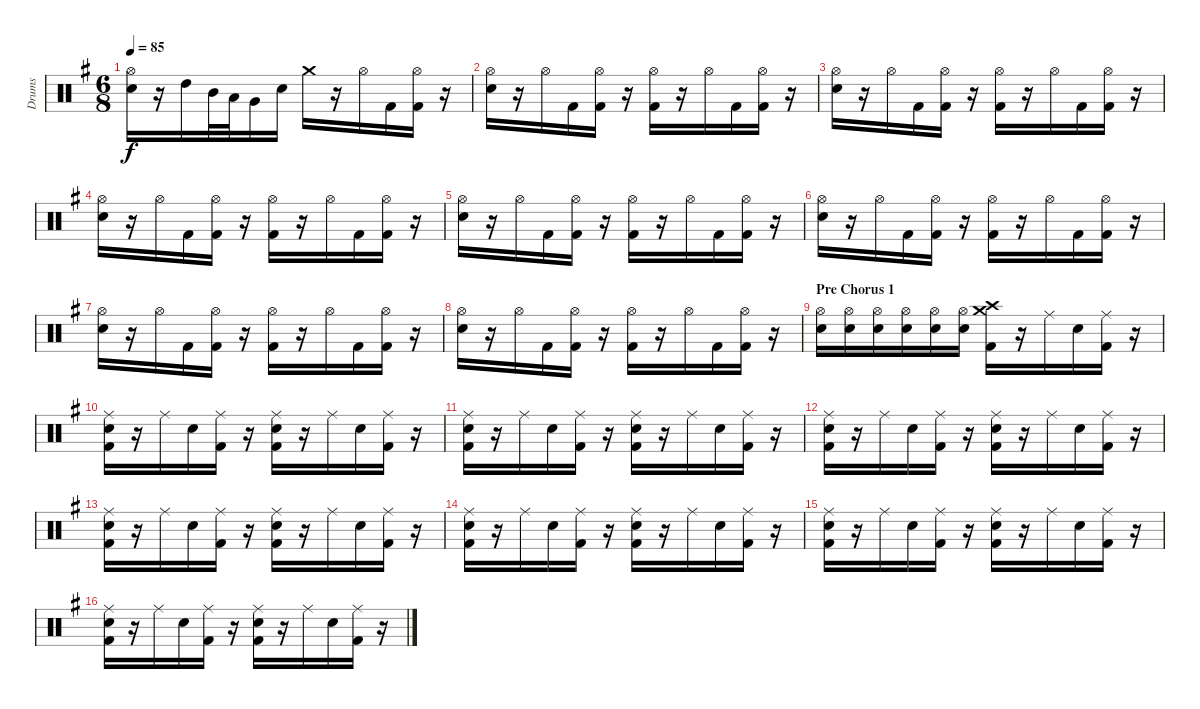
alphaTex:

\track ("Drums" "Drums") {instrument percussion}
\staff {score}
\articulation defaults
\ts (6 8)
\tempo 85
\clef neutral
\ks eminor
("Hi-Hat (open)" "Electric Snare (hit)").16{dy f} r.16 "High Tom (hit)".16 "Mid Tom (hit)".32 "Low Tom (hit)".32 "Very Low Tom (hit)".16 "Electric Snare (hit)".16 "Crash medium (hit)".16 r.16 "Hi-Hat (open)".16 "Kick (hit) 2".16 ("Hi-Hat (open)" "Kick (hit) 2").16 r.16 |
("Hi-Hat (open)" "Electric Snare (hit)").16 r.16 "Hi-Hat (open)".16 "Kick (hit) 2".16 ("Hi-Hat (open)" "Kick (hit) 2").16 r.16 ("Hi-Hat (open)" "Kick (hit) 2").16 r.16 "Hi-Hat (open)".16 "Kick (hit) 2".16 ("Hi-Hat (open)" "Kick (hit) 2").16 r.16 |
("Hi-Hat (open)" "Electric Snare (hit)").16 r.16 "Hi-Hat (open)".16 "Kick (hit) 2".16 ("Hi-Hat (open)" "Kick (hit) 2").16 r.16 ("Hi-Hat (open)" "Kick (hit) 2").16 r.16 "Hi-Hat (open)".16 "Kick (hit) 2".16 ("Hi-Hat (open)" "Kick (hit) 2").16 r.16 |
("Hi-Hat (open)" "Electric Snare (hit)").16 r.16 "Hi-Hat (open)".16 "Kick (hit) 2".16 ("Hi-Hat (open)" "Kick (hit) 2").16 r.16 ("Hi-Hat (open)" "Kick (hit) 2").16 r.16 "Hi-Hat (open)".16 "Kick (hit) 2".16 ("Hi-Hat (open)" "Kick (hit) 2").16 r.16 |
("Hi-Hat (open)" "Electric Snare (hit)").16 r.16 "Hi-Hat (open)".16 "Kick (hit) 2".16 ("Hi-Hat (open)" "Kick (hit) 2").16 r.16 ("Hi-Hat (open)" "Kick (hit) 2").16 r.16 "Hi-Hat (open)".16 "Kick (hit) 2".16 ("Hi-Hat (open)" "Kick (hit) 2").16 r.16 |
("Hi-Hat (open)" "Electric Snare (hit)").16 r.16 "Hi-Hat (open)".16 "Kick (hit) 2".16 ("Hi-Hat (open)" "Kick (hit) 2").16 r.16 ("Hi-Hat (open)" "Kick (hit) 2").16 r.16 "Hi-Hat (open)".16 "Kick (hit) 2".16 ("Hi-Hat (open)" "Kick (hit) 2").16 r.16 |
("Hi-Hat (open)" "Electric Snare (hit)").16 r.16 "Hi-Hat (open)".16 "Kick (hit) 2".16 ("Hi-Hat (open)" "Kick (hit) 2").16 r.16 ("Hi-Hat (open)" "Kick (hit) 2").16 r.16 "Hi-Hat (open)".16 "Kick (hit) 2".16 ("Hi-Hat (open)" "Kick (hit) 2").16 r.16 |
("Hi-Hat (open)" "Electric Snare (hit)").16 r.16 "Hi-Hat (open)".16 "Kick (hit) 2".16 ("Hi-Hat (open)" "Kick (hit) 2").16 r.16 ("Hi-Hat (open)" "Kick (hit) 2").16 r.16 "Hi-Hat (open)".16 "Kick (hit) 2".16 ("Hi-Hat (open)" "Kick (hit) 2").16 r.16 |
\section ("" "Pre Chorus 1")
("Hi-Hat (open)" "Electric Snare (hit)").16 ("Hi-Hat (open)" "Electric Snare (hit)").16 ("Hi-Hat (open)" "Electric Snare (hit)").16 ("Hi-Hat (open)" "Electric Snare (hit)").16 ("Hi-Hat (open)" "Electric Snare (hit)").16 ("Hi-Hat (open)" "Electric Snare (hit)").16 ("Crash medium (hit)" "Crash high (hit)" "Kick (hit) 2").16 r.16 "Ride (middle)".16 "Electric Snare (hit)".16 ("Ride (middle)" "Kick (hit) 2").16 r.16 |
("Ride (middle)" "Electric Snare (hit)" "Kick (hit) 2").16 r.16 "Ride (middle)".16 "Electric Snare (hit)".16 ("Ride (middle)" "Kick (hit) 2").16 r.16 ("Ride (middle)" "Electric Snare (hit)" "Kick (hit) 2").16 r.16 "Ride (middle)".16 "Electric Snare (hit)".16 ("Ride (middle)" "Kick (hit) 2").16 r.16 |
("Ride (middle)" "Electric Snare (hit)" "Kick (hit) 2").16 r.16 "Ride (middle)".16 "Electric Snare (hit)".16 ("Ride (middle)" "Kick (hit) 2").16 r.16 ("Ride (middle)" "Electric Snare (hit)" "Kick (hit) 2").16 r.16 "Ride (middle)".16 "Electric Snare (hit)".16 ("Ride (middle)" "Kick (hit) 2").16 r.16 |
("Ride (middle)" "Electric Snare (hit)" "Kick (hit) 2").16 r.16 "Ride (middle)".16 "Electric Snare (hit)".16 ("Ride (middle)" "Kick (hit) 2").16 r.16 ("Ride (middle)" "Electric Snare (hit)" "Kick (hit) 2").16 r.16 "Ride (middle)".16 "Electric Snare (hit)".16 ("Ride (middle)" "Kick (hit) 2").16 r.16 |
("Ride (middle)" "Electric Snare (hit)" "Kick (hit) 2").16 r.16 "Ride (middle)".16 "Electric Snare (hit)".16 ("Ride (middle)" "Kick (hit) 2").16 r.16 ("Ride (middle)" "Electric Snare (hit)" "Kick (hit) 2").16 r.16 "Ride (middle)".16 "Electric Snare (hit)".16 ("Ride (middle)" "Kick (hit) 2").16 r.16 |
("Ride (middle)" "Electric Snare (hit)" "Kick (hit) 2").16 r.16 "Ride (middle)".16 "Electric Snare (hit)".16 ("Ride (middle)" "Kick (hit) 2").16 r.16 ("Ride (middle)" "Electric Snare (hit)" "Kick (hit) 2").16 r.16 "Ride (middle)".16 "Electric Snare (hit)".16 ("Ride (middle)" "Kick (hit) 2").16 r.16 |
("Ride (middle)" "Electric Snare (hit)" "Kick (hit) 2").16 r.16 "Ride (middle)".16 "Electric Snare (hit)".16 ("Ride (middle)" "Kick (hit) 2").16 r.16 ("Ride (middle)" "Electric Snare (hit)" "Kick (hit) 2").16 r.16 "Ride (middle)".16 "Electric Snare (hit)".16 ("Ride (middle)" "Kick (hit) 2").16 r.16 |
("Ride (middle)" "Electric Snare (hit)" "Kick (hit) 2").16 r.16 "Ride (middle)".16 "Electric Snare (hit)".16 ("Ride (middle)" "Kick (hit) 2").16 r.16 ("Ride (middle)" "Electric Snare (hit)" "Kick (hit) 2").16 r.16 "Ride (middle)".16 "Electric Snare (hit)".16 ("Ride (middle)" "Kick (hit) 2").16 r.16
